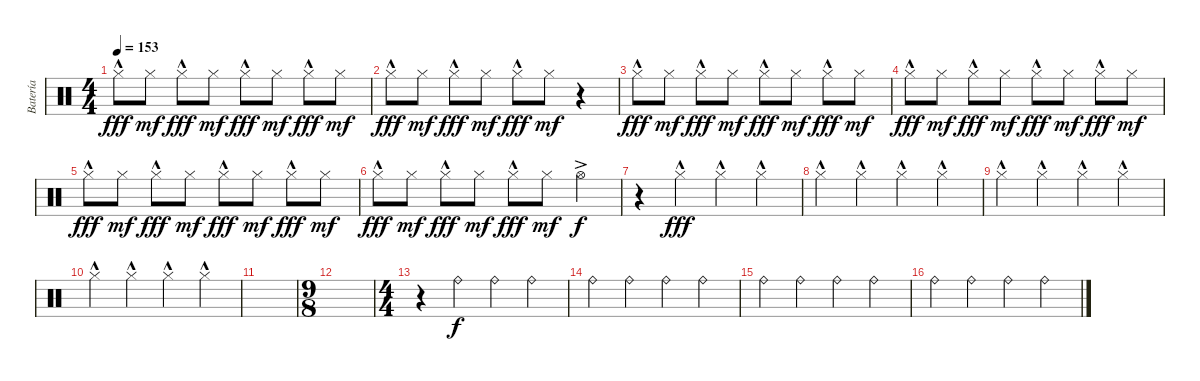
\track ("Batería" "Batería") {instrument percussion}
\staff {score}
\articulation defaults
\ts (4 4)
\tempo 153
\clef neutral
\ks c "Hi-Hat (closed)"{hac}.8{dy fff} "Hi-Hat (closed)".8{dy mf} "Hi-Hat (closed)"{hac}.8{dy fff} "Hi-Hat (closed)".8{dy mf} "Hi-Hat (closed)"{hac}.8{dy fff} "Hi-Hat (closed)".8{dy mf} "Hi-Hat (closed)"{hac}.8{dy fff} "Hi-Hat (closed)".8{dy mf}
|
"Hi-Hat (closed)"{hac}.8{dy fff} "Hi-Hat (closed)".8{dy mf} "Hi-Hat (closed)"{hac}.8{dy fff} "Hi-Hat (closed)".8{dy mf} "Hi-Hat (closed)"{hac}.8{dy fff} "Hi-Hat (closed)".8{dy mf} r.4 |
"Hi-Hat (closed)"{hac}.8{dy fff} "Hi-Hat (closed)".8{dy mf} "Hi-Hat (closed)"{hac}.8{dy fff} "Hi-Hat (closed)".8{dy mf} "Hi-Hat (closed)"{hac}.8{dy fff} "Hi-Hat (closed)".8{dy mf} "Hi-Hat (closed)"{hac}.8{dy fff} "Hi-Hat (closed)".8{dy mf} |
"Hi-Hat (closed)"{hac}.8{dy fff} "Hi-Hat (closed)".8{dy mf} "Hi-Hat (closed)"{hac}.8{dy fff} "Hi-Hat (closed)".8{dy mf} "Hi-Hat (closed)"{hac}.8{dy fff} "Hi-Hat (closed)".8{dy mf} "Hi-Hat (closed)"{hac}.8{dy fff} "Hi-Hat (closed)".8{dy mf} |
"Hi-Hat (closed)"{hac}.8{dy fff} "Hi-Hat (closed)".8{dy mf} "Hi-Hat (closed)"{hac}.8{dy fff} "Hi-Hat (closed)".8{dy mf} "Hi-Hat (closed)"{hac}.8{dy fff} "Hi-Hat (closed)".8{dy mf} "Hi-Hat (closed)"{hac}.8{dy fff} "Hi-Hat (closed)".8{dy mf} |
"Hi-Hat (closed)"{hac}.8{dy fff} "Hi-Hat (closed)".8{dy mf} "Hi-Hat (closed)"{hac}.8{dy fff} "Hi-Hat (closed)".8{dy mf} "Hi-Hat (closed)"{hac}.8{dy fff} "Hi-Hat (closed)".8{dy mf} "Hi-Hat (open)"{ac}.4{dy f} |
r.4 "Hi-Hat (closed)"{hac}.4{dy fff} "Hi-Hat (closed)"{hac}.4 "Hi-Hat (closed)"{hac}.4 |
"Hi-Hat (closed)"{hac}.4 "Hi-Hat (closed)"{hac}.4 "Hi-Hat (closed)"{hac}.4 "Hi-Hat (closed)"{hac}.4 |
"Hi-Hat (closed)"{hac}.4 "Hi-Hat (closed)"{hac}.4 "Hi-Hat (closed)"{hac}.4 "Hi-Hat (closed)"{hac}.4 |
"Hi-Hat (closed)"{hac}.4 "Hi-Hat (closed)"{hac}.4 "Hi-Hat (closed)"{hac}.4 "Hi-Hat (closed)"{hac}.4 |
|
\ts (9 8)
|
\ts (4 4)
r.4 "Ride (bell)".4{dy f} "Ride (bell)".4 "Ride (bell)".4 |
"Ride (bell)".4 "Ride (bell)".4 "Ride (bell)".4 "Ride (bell)".4 |
"Ride (bell)".4 "Ride (bell)".4 "Ride (bell)".4 "Ride (bell)".4 |
"Ride (bell)".4 "Ride (bell)".4 "Ride (bell)".4 "Ride (bell)".4
